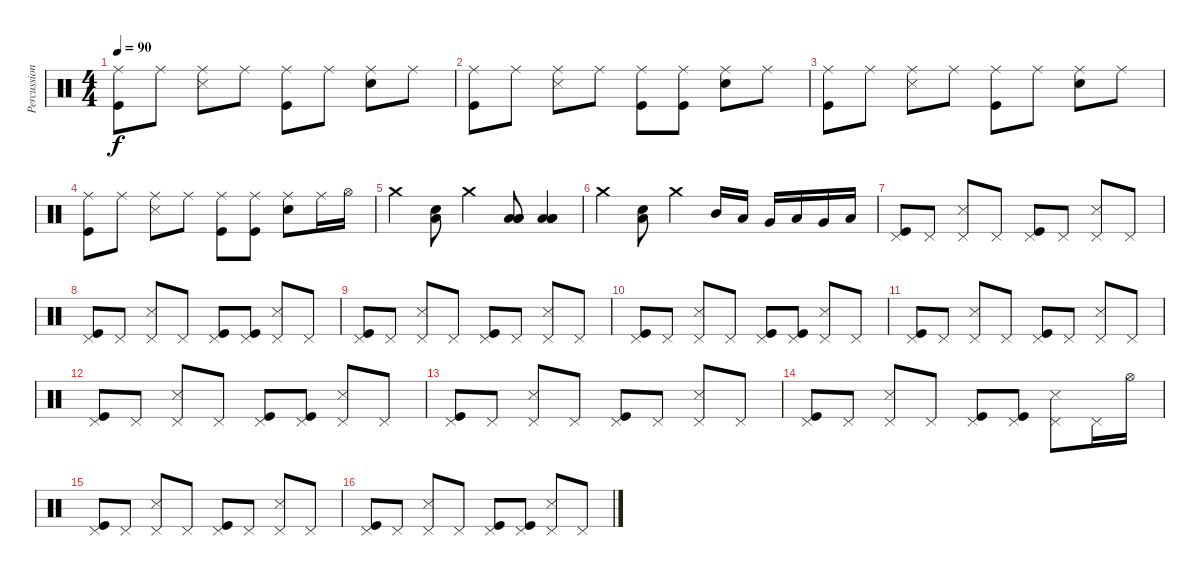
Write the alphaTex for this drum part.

\track ("Percussion" "Percussion") {instrument percussion}
\staff {score}
\articulation defaults
\ts (4 4)
\tempo 90
\clef neutral
\ks c
("Ride (middle)" "Kick (hit)").8{dy f} "Ride (middle)".8 ("Ride (middle)" "Snare (side stick) 3").8 "Ride (middle)".8 ("Ride (middle)" "Kick (hit)").8 "Ride (middle)".8 ("Ride (middle)" "Electric Snare (hit)").8 "Ride (middle)".8 |
("Ride (middle)" "Kick (hit)").8 "Ride (middle)".8 ("Ride (middle)" "Snare (side stick) 3").8 "Ride (middle)".8 ("Ride (middle)" "Kick (hit)").8 ("Ride (middle)" "Kick (hit)").8 ("Ride (middle)" "Electric Snare (hit)").8 "Ride (middle)".8 |
("Ride (middle)" "Kick (hit)").8 "Ride (middle)".8 ("Ride (middle)" "Snare (side stick) 3").8 "Ride (middle)".8 ("Ride (middle)" "Kick (hit)").8 "Ride (middle)".8 ("Ride (middle)" "Electric Snare (hit)").8 "Ride (middle)".8 |
("Ride (middle)" "Kick (hit)").8 "Ride (middle)".8 ("Ride (middle)" "Snare (side stick) 3").8 "Ride (middle)".8 ("Ride (middle)" "Kick (hit)").8 ("Ride (middle)" "Kick (hit)").8 ("Ride (middle)" "Electric Snare (hit)").8 "Ride (middle)".16 "Hi-Hat (open)".16 |
"Crash medium (hit)".4 ("Low Tom (hit)" "Electric Snare (hit)").8 "Crash medium (hit)".4 ("Low Tom (hit)" "Low Tom (hit)" "Low Tom (hit)").8 ("Low Tom (hit)" "Low Tom (hit)" "Low Tom (hit)").4 |
"Crash medium (hit)".4 ("Low Tom (hit)" "Electric Snare (hit)").8 "Crash medium (hit)".4 "Mid Tom (hit)".16 "Low Tom (hit)".16 "Very Low Tom (hit)".16 "Low Floor Tom (hit)".16 "Very Low Tom (hit)".16 "Low Floor Tom (hit)".16 |
("Pedal Hi-Hat (hit)" "Kick (hit)").8 "Pedal Hi-Hat (hit)".8 ("Pedal Hi-Hat (hit)" "Snare (side stick) 3").8 "Pedal Hi-Hat (hit)".8 ("Pedal Hi-Hat (hit)" "Kick (hit)").8 "Pedal Hi-Hat (hit)".8 ("Pedal Hi-Hat (hit)" "Snare (side stick) 3").8 "Pedal Hi-Hat (hit)".8 |
("Pedal Hi-Hat (hit)" "Kick (hit)").8 "Pedal Hi-Hat (hit)".8 ("Pedal Hi-Hat (hit)" "Snare (side stick) 3").8 "Pedal Hi-Hat (hit)".8 ("Pedal Hi-Hat (hit)" "Kick (hit)").8 ("Pedal Hi-Hat (hit)" "Kick (hit)").8 ("Pedal Hi-Hat (hit)" "Snare (side stick) 3").8 "Pedal Hi-Hat (hit)".8 |
("Pedal Hi-Hat (hit)" "Kick (hit)").8 "Pedal Hi-Hat (hit)".8 ("Pedal Hi-Hat (hit)" "Snare (side stick) 3").8 "Pedal Hi-Hat (hit)".8 ("Pedal Hi-Hat (hit)" "Kick (hit)").8 "Pedal Hi-Hat (hit)".8 ("Pedal Hi-Hat (hit)" "Snare (side stick) 3").8 "Pedal Hi-Hat (hit)".8 |
("Pedal Hi-Hat (hit)" "Kick (hit)").8 "Pedal Hi-Hat (hit)".8 ("Pedal Hi-Hat (hit)" "Snare (side stick) 3").8 "Pedal Hi-Hat (hit)".8 ("Pedal Hi-Hat (hit)" "Kick (hit)").8 ("Pedal Hi-Hat (hit)" "Kick (hit)").8 ("Pedal Hi-Hat (hit)" "Snare (side stick) 3").8 "Pedal Hi-Hat (hit)".8 |
("Pedal Hi-Hat (hit)" "Kick (hit)").8 "Pedal Hi-Hat (hit)".8 ("Pedal Hi-Hat (hit)" "Snare (side stick) 3").8 "Pedal Hi-Hat (hit)".8 ("Pedal Hi-Hat (hit)" "Kick (hit)").8 "Pedal Hi-Hat (hit)".8 ("Pedal Hi-Hat (hit)" "Snare (side stick) 3").8 "Pedal Hi-Hat (hit)".8 |
("Pedal Hi-Hat (hit)" "Kick (hit)").8 "Pedal Hi-Hat (hit)".8 ("Pedal Hi-Hat (hit)" "Snare (side stick) 3").8 "Pedal Hi-Hat (hit)".8 ("Pedal Hi-Hat (hit)" "Kick (hit)").8 ("Pedal Hi-Hat (hit)" "Kick (hit)").8 ("Pedal Hi-Hat (hit)" "Snare (side stick) 3").8 "Pedal Hi-Hat (hit)".8 |
("Pedal Hi-Hat (hit)" "Kick (hit)").8 "Pedal Hi-Hat (hit)".8 ("Pedal Hi-Hat (hit)" "Snare (side stick) 3").8 "Pedal Hi-Hat (hit)".8 ("Pedal Hi-Hat (hit)" "Kick (hit)").8 "Pedal Hi-Hat (hit)".8 ("Pedal Hi-Hat (hit)" "Snare (side stick) 3").8 "Pedal Hi-Hat (hit)".8 |
("Pedal Hi-Hat (hit)" "Kick (hit)").8 "Pedal Hi-Hat (hit)".8 ("Pedal Hi-Hat (hit)" "Snare (side stick) 3").8 "Pedal Hi-Hat (hit)".8 ("Pedal Hi-Hat (hit)" "Kick (hit)").8 ("Pedal Hi-Hat (hit)" "Kick (hit)").8 ("Pedal Hi-Hat (hit)" "Snare (side stick) 3").8 "Pedal Hi-Hat (hit)".16 "Hi-Hat (open)".16 |
("Pedal Hi-Hat (hit)" "Kick (hit)").8 "Pedal Hi-Hat (hit)".8 ("Pedal Hi-Hat (hit)" "Snare (side stick) 3").8 "Pedal Hi-Hat (hit)".8 ("Pedal Hi-Hat (hit)" "Kick (hit)").8 "Pedal Hi-Hat (hit)".8 ("Pedal Hi-Hat (hit)" "Snare (side stick) 3").8 "Pedal Hi-Hat (hit)".8 |
("Pedal Hi-Hat (hit)" "Kick (hit)").8 "Pedal Hi-Hat (hit)".8 ("Pedal Hi-Hat (hit)" "Snare (side stick) 3").8 "Pedal Hi-Hat (hit)".8 ("Pedal Hi-Hat (hit)" "Kick (hit)").8 ("Pedal Hi-Hat (hit)" "Kick (hit)").8 ("Pedal Hi-Hat (hit)" "Snare (side stick) 3").8 "Pedal Hi-Hat (hit)".8
